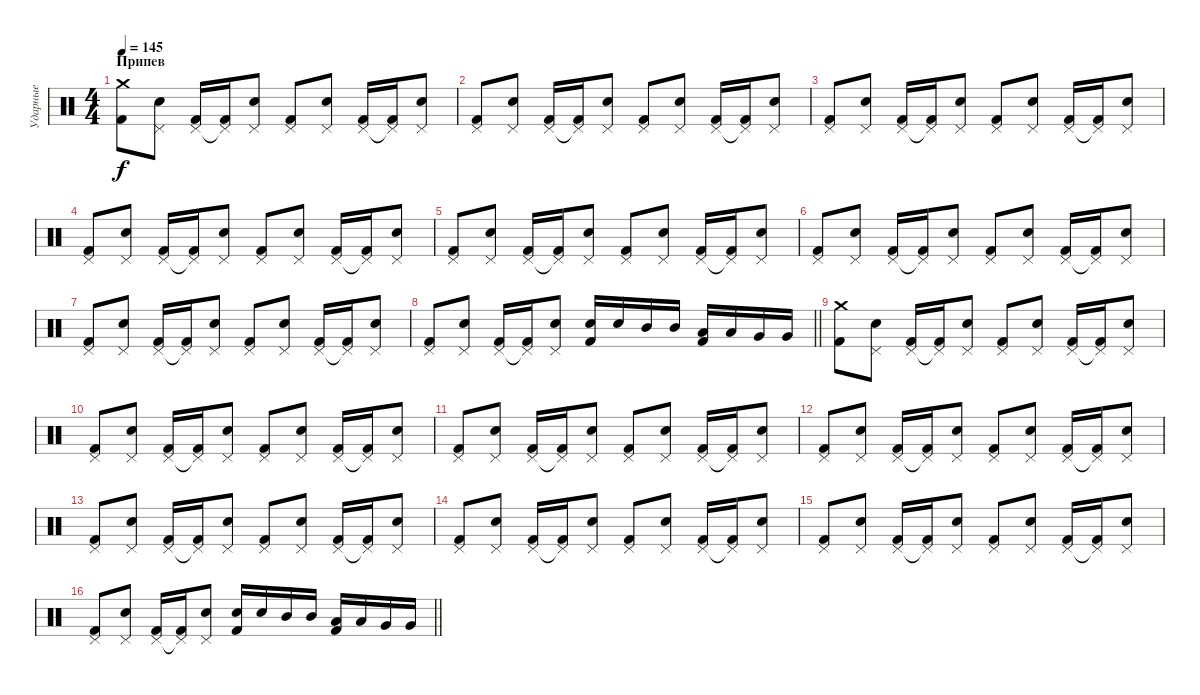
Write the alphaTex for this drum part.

\track ("Ударные" "Ударные") {instrument percussion}
\staff {score}
\articulation defaults
\ts (4 4)
\section ("" "Припев")
\tempo 145
\clef neutral
\ks c
("Crash medium (hit)" "Kick (hit) 2").8{dy f} ("Pedal Hi-Hat (hit)" "Electric Snare (hit)").8 ("Pedal Hi-Hat (hit)" "Kick (hit) 2").16 ("Pedal Hi-Hat (hit)"{t} "Kick (hit) 2").16 ("Pedal Hi-Hat (hit)" "Electric Snare (hit)").8 ("Pedal Hi-Hat (hit)" "Kick (hit) 2").8 ("Pedal Hi-Hat (hit)" "Electric Snare (hit)").8 ("Pedal Hi-Hat (hit)" "Kick (hit) 2").16 ("Pedal Hi-Hat (hit)"{t} "Kick (hit) 2").16 ("Pedal Hi-Hat (hit)" "Electric Snare (hit)").8 |
("Pedal Hi-Hat (hit)" "Kick (hit) 2").8 ("Pedal Hi-Hat (hit)" "Electric Snare (hit)").8 ("Pedal Hi-Hat (hit)" "Kick (hit) 2").16 ("Pedal Hi-Hat (hit)"{t} "Kick (hit) 2").16 ("Pedal Hi-Hat (hit)" "Electric Snare (hit)").8 ("Pedal Hi-Hat (hit)" "Kick (hit) 2").8 ("Pedal Hi-Hat (hit)" "Electric Snare (hit)").8 ("Pedal Hi-Hat (hit)" "Kick (hit) 2").16 ("Pedal Hi-Hat (hit)"{t} "Kick (hit) 2").16 ("Pedal Hi-Hat (hit)" "Electric Snare (hit)").8 |
("Pedal Hi-Hat (hit)" "Kick (hit) 2").8 ("Pedal Hi-Hat (hit)" "Electric Snare (hit)").8 ("Pedal Hi-Hat (hit)" "Kick (hit) 2").16 ("Pedal Hi-Hat (hit)"{t} "Kick (hit) 2").16 ("Pedal Hi-Hat (hit)" "Electric Snare (hit)").8 ("Pedal Hi-Hat (hit)" "Kick (hit) 2").8 ("Pedal Hi-Hat (hit)" "Electric Snare (hit)").8 ("Pedal Hi-Hat (hit)" "Kick (hit) 2").16 ("Pedal Hi-Hat (hit)"{t} "Kick (hit) 2").16 ("Pedal Hi-Hat (hit)" "Electric Snare (hit)").8 |
("Pedal Hi-Hat (hit)" "Kick (hit) 2").8 ("Pedal Hi-Hat (hit)" "Electric Snare (hit)").8 ("Pedal Hi-Hat (hit)" "Kick (hit) 2").16 ("Pedal Hi-Hat (hit)"{t} "Kick (hit) 2").16 ("Pedal Hi-Hat (hit)" "Electric Snare (hit)").8 ("Pedal Hi-Hat (hit)" "Kick (hit) 2").8 ("Pedal Hi-Hat (hit)" "Electric Snare (hit)").8 ("Pedal Hi-Hat (hit)" "Kick (hit) 2").16 ("Pedal Hi-Hat (hit)"{t} "Kick (hit) 2").16 ("Pedal Hi-Hat (hit)" "Electric Snare (hit)").8 |
("Pedal Hi-Hat (hit)" "Kick (hit) 2").8 ("Pedal Hi-Hat (hit)" "Electric Snare (hit)").8 ("Pedal Hi-Hat (hit)" "Kick (hit) 2").16 ("Pedal Hi-Hat (hit)"{t} "Kick (hit) 2").16 ("Pedal Hi-Hat (hit)" "Electric Snare (hit)").8 ("Pedal Hi-Hat (hit)" "Kick (hit) 2").8 ("Pedal Hi-Hat (hit)" "Electric Snare (hit)").8 ("Pedal Hi-Hat (hit)" "Kick (hit) 2").16 ("Pedal Hi-Hat (hit)"{t} "Kick (hit) 2").16 ("Pedal Hi-Hat (hit)" "Electric Snare (hit)").8 |
("Pedal Hi-Hat (hit)" "Kick (hit) 2").8 ("Pedal Hi-Hat (hit)" "Electric Snare (hit)").8 ("Pedal Hi-Hat (hit)" "Kick (hit) 2").16 ("Pedal Hi-Hat (hit)"{t} "Kick (hit) 2").16 ("Pedal Hi-Hat (hit)" "Electric Snare (hit)").8 ("Pedal Hi-Hat (hit)" "Kick (hit) 2").8 ("Pedal Hi-Hat (hit)" "Electric Snare (hit)").8 ("Pedal Hi-Hat (hit)" "Kick (hit) 2").16 ("Pedal Hi-Hat (hit)"{t} "Kick (hit) 2").16 ("Pedal Hi-Hat (hit)" "Electric Snare (hit)").8 |
("Pedal Hi-Hat (hit)" "Kick (hit) 2").8 ("Pedal Hi-Hat (hit)" "Electric Snare (hit)").8 ("Pedal Hi-Hat (hit)" "Kick (hit) 2").16 ("Pedal Hi-Hat (hit)"{t} "Kick (hit) 2").16 ("Pedal Hi-Hat (hit)" "Electric Snare (hit)").8 ("Pedal Hi-Hat (hit)" "Kick (hit) 2").8 ("Pedal Hi-Hat (hit)" "Electric Snare (hit)").8 ("Pedal Hi-Hat (hit)" "Kick (hit) 2").16 ("Pedal Hi-Hat (hit)"{t} "Kick (hit) 2").16 ("Pedal Hi-Hat (hit)" "Electric Snare (hit)").8 |
\barLineRight lightlight
("Pedal Hi-Hat (hit)" "Kick (hit) 2").8 ("Pedal Hi-Hat (hit)" "Electric Snare (hit)").8 ("Pedal Hi-Hat (hit)" "Kick (hit) 2").16 ("Pedal Hi-Hat (hit)"{t} "Kick (hit) 2").16 ("Pedal Hi-Hat (hit)" "Electric Snare (hit)").8 ("Electric Snare (hit)" "Kick (hit) 2").16 "Electric Snare (hit)".16 "Mid Tom (hit)".16 "Mid Tom (hit)".16 ("Low Tom (hit)" "Kick (hit) 2").16 "Low Tom (hit)".16 "Very Low Tom (hit)".16 "Very Low Tom (hit)".16 |
("Crash medium (hit)" "Kick (hit) 2").8 ("Pedal Hi-Hat (hit)" "Electric Snare (hit)").8 ("Pedal Hi-Hat (hit)" "Kick (hit) 2").16 ("Pedal Hi-Hat (hit)"{t} "Kick (hit) 2").16 ("Pedal Hi-Hat (hit)" "Electric Snare (hit)").8 ("Pedal Hi-Hat (hit)" "Kick (hit) 2").8 ("Pedal Hi-Hat (hit)" "Electric Snare (hit)").8 ("Pedal Hi-Hat (hit)" "Kick (hit) 2").16 ("Pedal Hi-Hat (hit)"{t} "Kick (hit) 2").16 ("Pedal Hi-Hat (hit)" "Electric Snare (hit)").8 |
("Pedal Hi-Hat (hit)" "Kick (hit) 2").8 ("Pedal Hi-Hat (hit)" "Electric Snare (hit)").8 ("Pedal Hi-Hat (hit)" "Kick (hit) 2").16 ("Pedal Hi-Hat (hit)"{t} "Kick (hit) 2").16 ("Pedal Hi-Hat (hit)" "Electric Snare (hit)").8 ("Pedal Hi-Hat (hit)" "Kick (hit) 2").8 ("Pedal Hi-Hat (hit)" "Electric Snare (hit)").8 ("Pedal Hi-Hat (hit)" "Kick (hit) 2").16 ("Pedal Hi-Hat (hit)"{t} "Kick (hit) 2").16 ("Pedal Hi-Hat (hit)" "Electric Snare (hit)").8 |
("Pedal Hi-Hat (hit)" "Kick (hit) 2").8 ("Pedal Hi-Hat (hit)" "Electric Snare (hit)").8 ("Pedal Hi-Hat (hit)" "Kick (hit) 2").16 ("Pedal Hi-Hat (hit)"{t} "Kick (hit) 2").16 ("Pedal Hi-Hat (hit)" "Electric Snare (hit)").8 ("Pedal Hi-Hat (hit)" "Kick (hit) 2").8 ("Pedal Hi-Hat (hit)" "Electric Snare (hit)").8 ("Pedal Hi-Hat (hit)" "Kick (hit) 2").16 ("Pedal Hi-Hat (hit)"{t} "Kick (hit) 2").16 ("Pedal Hi-Hat (hit)" "Electric Snare (hit)").8 |
("Pedal Hi-Hat (hit)" "Kick (hit) 2").8 ("Pedal Hi-Hat (hit)" "Electric Snare (hit)").8 ("Pedal Hi-Hat (hit)" "Kick (hit) 2").16 ("Pedal Hi-Hat (hit)"{t} "Kick (hit) 2").16 ("Pedal Hi-Hat (hit)" "Electric Snare (hit)").8 ("Pedal Hi-Hat (hit)" "Kick (hit) 2").8 ("Pedal Hi-Hat (hit)" "Electric Snare (hit)").8 ("Pedal Hi-Hat (hit)" "Kick (hit) 2").16 ("Pedal Hi-Hat (hit)"{t} "Kick (hit) 2").16 ("Pedal Hi-Hat (hit)" "Electric Snare (hit)").8 |
("Pedal Hi-Hat (hit)" "Kick (hit) 2").8 ("Pedal Hi-Hat (hit)" "Electric Snare (hit)").8 ("Pedal Hi-Hat (hit)" "Kick (hit) 2").16 ("Pedal Hi-Hat (hit)"{t} "Kick (hit) 2").16 ("Pedal Hi-Hat (hit)" "Electric Snare (hit)").8 ("Pedal Hi-Hat (hit)" "Kick (hit) 2").8 ("Pedal Hi-Hat (hit)" "Electric Snare (hit)").8 ("Pedal Hi-Hat (hit)" "Kick (hit) 2").16 ("Pedal Hi-Hat (hit)"{t} "Kick (hit) 2").16 ("Pedal Hi-Hat (hit)" "Electric Snare (hit)").8 |
("Pedal Hi-Hat (hit)" "Kick (hit) 2").8 ("Pedal Hi-Hat (hit)" "Electric Snare (hit)").8 ("Pedal Hi-Hat (hit)" "Kick (hit) 2").16 ("Pedal Hi-Hat (hit)"{t} "Kick (hit) 2").16 ("Pedal Hi-Hat (hit)" "Electric Snare (hit)").8 ("Pedal Hi-Hat (hit)" "Kick (hit) 2").8 ("Pedal Hi-Hat (hit)" "Electric Snare (hit)").8 ("Pedal Hi-Hat (hit)" "Kick (hit) 2").16 ("Pedal Hi-Hat (hit)"{t} "Kick (hit) 2").16 ("Pedal Hi-Hat (hit)" "Electric Snare (hit)").8 |
("Pedal Hi-Hat (hit)" "Kick (hit) 2").8 ("Pedal Hi-Hat (hit)" "Electric Snare (hit)").8 ("Pedal Hi-Hat (hit)" "Kick (hit) 2").16 ("Pedal Hi-Hat (hit)"{t} "Kick (hit) 2").16 ("Pedal Hi-Hat (hit)" "Electric Snare (hit)").8 ("Pedal Hi-Hat (hit)" "Kick (hit) 2").8 ("Pedal Hi-Hat (hit)" "Electric Snare (hit)").8 ("Pedal Hi-Hat (hit)" "Kick (hit) 2").16 ("Pedal Hi-Hat (hit)"{t} "Kick (hit) 2").16 ("Pedal Hi-Hat (hit)" "Electric Snare (hit)").8 |
\barLineRight lightlight
("Pedal Hi-Hat (hit)" "Kick (hit) 2").8 ("Pedal Hi-Hat (hit)" "Electric Snare (hit)").8 ("Pedal Hi-Hat (hit)" "Kick (hit) 2").16 ("Pedal Hi-Hat (hit)"{t} "Kick (hit) 2").16 ("Pedal Hi-Hat (hit)" "Electric Snare (hit)").8 ("Electric Snare (hit)" "Kick (hit) 2").16 "Electric Snare (hit)".16 "Mid Tom (hit)".16 "Mid Tom (hit)".16 ("Low Tom (hit)" "Kick (hit) 2").16 "Low Tom (hit)".16 "Very Low Tom (hit)".16 "Very Low Tom (hit)".16
